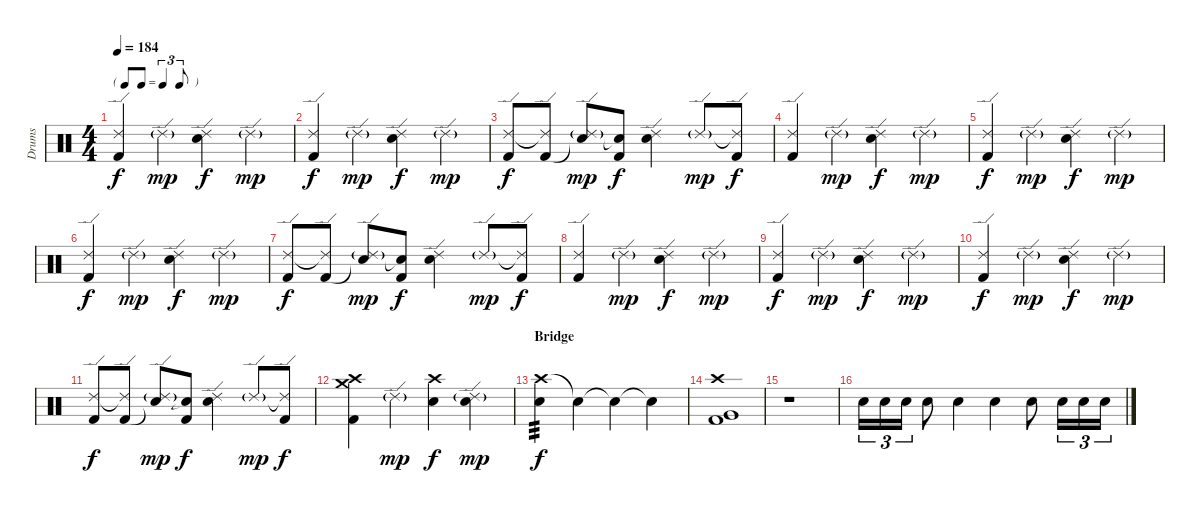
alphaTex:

\track ("Drums" "Drums") {instrument percussion}
\staff {score}
\articulation defaults
\ts (4 4)
\tf triplet8th
\tempo 184
\clef neutral
\ks c
("Ride (edge) 2" "Kick (hit) 2").4{dy f} "Ride (edge) 2"{g}.4{dy mp} ("Ride (edge) 2" "Electric Snare (hit)").4{dy f} "Ride (edge) 2"{g}.4{dy mp} |
("Ride (edge) 2" "Kick (hit) 2").4{dy f} "Ride (edge) 2"{g}.4{dy mp} ("Ride (edge) 2" "Electric Snare (hit)").4{dy f} "Ride (edge) 2"{g}.4{dy mp} |
("Ride (edge) 2" "Kick (hit) 2").8{dy f} ("Ride (edge) 2"{t} "Kick (hit) 2").8 ("Ride (edge) 2"{g} "Snare (hit)"{t}).8{dy mp} ("Snare (hit)"{t} "Kick (hit) 2").8{dy f} ("Ride (edge) 2" "Electric Snare (hit)").4 "Ride (edge) 2"{g}.8{dy mp} ("Ride (edge) 2"{t} "Kick (hit) 2").8{dy f} |
("Ride (edge) 2" "Kick (hit) 2").4 "Ride (edge) 2"{g}.4{dy mp} ("Ride (edge) 2" "Electric Snare (hit)").4{dy f} "Ride (edge) 2"{g}.4{dy mp} |
("Ride (edge) 2" "Kick (hit) 2").4{dy f} "Ride (edge) 2"{g}.4{dy mp} ("Ride (edge) 2" "Electric Snare (hit)").4{dy f} "Ride (edge) 2"{g}.4{dy mp} |
("Ride (edge) 2" "Kick (hit) 2").4{dy f} "Ride (edge) 2"{g}.4{dy mp} ("Ride (edge) 2" "Electric Snare (hit)").4{dy f} "Ride (edge) 2"{g}.4{dy mp} |
("Ride (edge) 2" "Kick (hit) 2").8{dy f} ("Ride (edge) 2"{t} "Kick (hit) 2").8 ("Ride (edge) 2"{g} "Snare (hit)"{t}).8{dy mp} ("Snare (hit)"{t} "Kick (hit) 2").8{dy f} ("Ride (edge) 2" "Electric Snare (hit)").4 "Ride (edge) 2"{g}.8{dy mp} ("Ride (edge) 2"{t} "Kick (hit) 2").8{dy f} |
("Ride (edge) 2" "Kick (hit) 2").4 "Ride (edge) 2"{g}.4{dy mp} ("Ride (edge) 2" "Electric Snare (hit)").4{dy f} "Ride (edge) 2"{g}.4{dy mp} |
("Ride (edge) 2" "Kick (hit) 2").4{dy f} "Ride (edge) 2"{g}.4{dy mp} ("Ride (edge) 2" "Electric Snare (hit)").4{dy f} "Ride (edge) 2"{g}.4{dy mp} |
("Ride (edge) 2" "Kick (hit) 2").4{dy f} "Ride (edge) 2"{g}.4{dy mp} ("Ride (edge) 2" "Electric Snare (hit)").4{dy f} "Ride (edge) 2"{g}.4{dy mp} |
("Ride (edge) 2" "Kick (hit) 2").8{dy f} ("Ride (edge) 2"{t} "Kick (hit) 2").8 ("Ride (edge) 2"{g} "Snare (hit)"{t}).8{dy mp} ("Snare (hit)"{t} "Kick (hit) 2").8{dy f} ("Ride (edge) 2" "Electric Snare (hit)").4 "Ride (edge) 2"{g}.8{dy mp} ("Ride (edge) 2"{t} "Kick (hit) 2").8{dy f} |
("Crash high (hit)" "Crash medium (hit)" "Kick (hit) 2").4 "Ride (edge) 2"{g}.4{dy mp} ("Crash high (hit)" "Electric Snare (hit)").4{dy f} ("Ride (edge) 2"{g} "Electric Snare (hit)").4{dy mp} |
\section ("" "Bridge")
("Crash high (hit)" "Electric Snare (hit)").4{tp 3 dy f} "Snare (hit)"{t}.4 "Electric Snare (hit)"{t}.4 "Snare (hit)"{t}.4 |
("Crash high (hit)" "Very Low Tom (hit)" "Kick (hit) 2").1 |
r.1 |
"Electric Snare (hit)".16{tu (3 2)} "Electric Snare (hit)".16{tu (3 2)} "Electric Snare (hit)".16{tu (3 2)} "Electric Snare (hit)".8 "Electric Snare (hit)".4 "Electric Snare (hit)".4 "Electric Snare (hit)".8 "Electric Snare (hit)".16{tu (3 2)} "Electric Snare (hit)".16{tu (3 2)} "Electric Snare (hit)".16{tu (3 2)}
